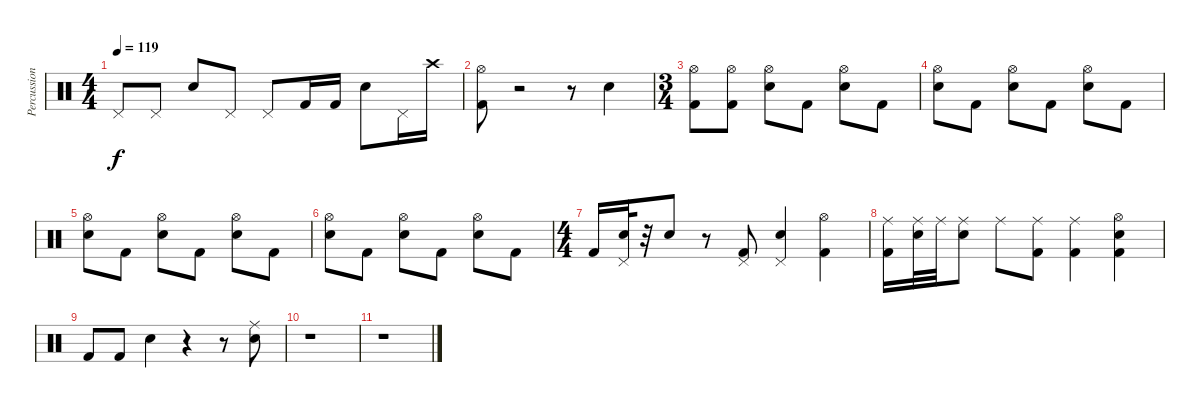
\track ("Percussion" "Percussion") {instrument percussion}
\staff {score}
\articulation defaults
\ts (4 4)
\tempo 119
\clef neutral
\ks c "Pedal Hi-Hat (hit)".8{dy f} "Pedal Hi-Hat (hit)".8 "Electric Snare (hit)".8 "Pedal Hi-Hat (hit)".8 "Pedal Hi-Hat (hit)".8 "Kick (hit) 2".16 "Kick (hit) 2".16 "Electric Snare (hit)".8 "Pedal Hi-Hat (hit)".16 "Crash high (hit)".16
|
("Hi-Hat (open)" "Kick (hit) 2").8 r.2 r.8 "Electric Snare (hit)".4 |
\ts (3 4)
("Hi-Hat (open)" "Kick (hit) 2").8 ("Hi-Hat (open)" "Kick (hit) 2").8 ("Hi-Hat (open)" "Electric Snare (hit)").8 "Kick (hit) 2".8 ("Hi-Hat (open)" "Electric Snare (hit)").8 "Kick (hit) 2".8 |
("Hi-Hat (open)" "Electric Snare (hit)").8 "Kick (hit) 2".8 ("Hi-Hat (open)" "Electric Snare (hit)").8 "Kick (hit) 2".8 ("Hi-Hat (open)" "Electric Snare (hit)").8 "Kick (hit) 2".8 |
("Hi-Hat (open)" "Electric Snare (hit)").8 "Kick (hit) 2".8 ("Hi-Hat (open)" "Electric Snare (hit)").8 "Kick (hit) 2".8 ("Hi-Hat (open)" "Electric Snare (hit)").8 "Kick (hit) 2".8 |
("Hi-Hat (open)" "Electric Snare (hit)").8 "Kick (hit) 2".8 ("Hi-Hat (open)" "Electric Snare (hit)").8 "Kick (hit) 2".8 ("Hi-Hat (open)" "Electric Snare (hit)").8 "Kick (hit) 2".8 |
\ts (4 4)
"Kick (hit) 2".16 ("Electric Snare (hit)" "Pedal Hi-Hat (hit)").32 r.32 "Electric Snare (hit)".8 r.8 ("Kick (hit) 2" "Pedal Hi-Hat (hit)").8 ("Electric Snare (hit)" "Pedal Hi-Hat (hit)").4 ("Kick (hit) 2" "Hi-Hat (open)").4 |
("Kick (hit) 2" "Ride (middle)").16 ("Electric Snare (hit)" "Ride (middle)").32 "Ride (middle)".32 ("Electric Snare (hit)" "Ride (middle)").8 "Ride (middle)".8 ("Kick (hit) 2" "Ride (middle)").8 ("Kick (hit) 2" "Ride (middle)").4 ("Kick (hit) 2" "Electric Snare (hit)" "Hi-Hat (open)").4 |
"Kick (hit) 2".8 "Kick (hit) 2".8 "Electric Snare (hit)".4 r.4 r.8 ("Ride (middle)" "Electric Snare (hit)").8 |
r.1 |
r.1
